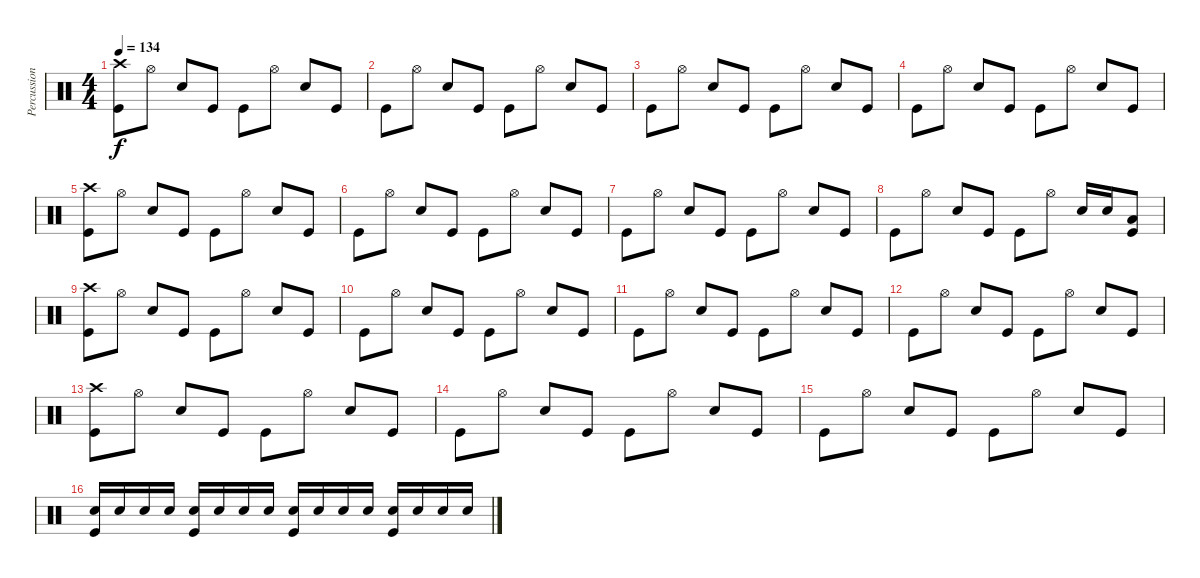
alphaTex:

\track ("Percussion" "Percussion") {instrument percussion}
\staff {score}
\articulation defaults
\ts (4 4)
\tempo 134
\clef neutral
\ks c
("Crash high (hit)" "Kick (hit)").8{dy f} "Hi-Hat (open)".8 "Electric Snare (hit)".8 "Kick (hit)".8 "Kick (hit)".8 "Hi-Hat (open)".8 "Electric Snare (hit)".8 "Kick (hit)".8 |
"Kick (hit)".8 "Hi-Hat (open)".8 "Electric Snare (hit)".8 "Kick (hit)".8 "Kick (hit)".8 "Hi-Hat (open)".8 "Electric Snare (hit)".8 "Kick (hit)".8 |
"Kick (hit)".8 "Hi-Hat (open)".8 "Electric Snare (hit)".8 "Kick (hit)".8 "Kick (hit)".8 "Hi-Hat (open)".8 "Electric Snare (hit)".8 "Kick (hit)".8 |
"Kick (hit)".8 "Hi-Hat (open)".8 "Electric Snare (hit)".8 "Kick (hit)".8 "Kick (hit)".8 "Hi-Hat (open)".8 "Electric Snare (hit)".8 "Kick (hit)".8 |
("Crash high (hit)" "Kick (hit)").8 "Hi-Hat (open)".8 "Electric Snare (hit)".8 "Kick (hit)".8 "Kick (hit)".8 "Hi-Hat (open)".8 "Electric Snare (hit)".8 "Kick (hit)".8 |
"Kick (hit)".8 "Hi-Hat (open)".8 "Electric Snare (hit)".8 "Kick (hit)".8 "Kick (hit)".8 "Hi-Hat (open)".8 "Electric Snare (hit)".8 "Kick (hit)".8 |
"Kick (hit)".8 "Hi-Hat (open)".8 "Electric Snare (hit)".8 "Kick (hit)".8 "Kick (hit)".8 "Hi-Hat (open)".8 "Electric Snare (hit)".8 "Kick (hit)".8 |
"Kick (hit)".8 "Hi-Hat (open)".8 "Electric Snare (hit)".8 "Kick (hit)".8 "Kick (hit)".8 "Hi-Hat (open)".8 "Electric Snare (hit)".16 "Electric Snare (hit)".16 ("Low Tom (hit)" "Kick (hit)").8 |
("Crash high (hit)" "Kick (hit)").8 "Hi-Hat (open)".8 "Electric Snare (hit)".8 "Kick (hit)".8 "Kick (hit)".8 "Hi-Hat (open)".8 "Electric Snare (hit)".8 "Kick (hit)".8 |
"Kick (hit)".8 "Hi-Hat (open)".8 "Electric Snare (hit)".8 "Kick (hit)".8 "Kick (hit)".8 "Hi-Hat (open)".8 "Electric Snare (hit)".8 "Kick (hit)".8 |
"Kick (hit)".8 "Hi-Hat (open)".8 "Electric Snare (hit)".8 "Kick (hit)".8 "Kick (hit)".8 "Hi-Hat (open)".8 "Electric Snare (hit)".8 "Kick (hit)".8 |
"Kick (hit)".8 "Hi-Hat (open)".8 "Electric Snare (hit)".8 "Kick (hit)".8 "Kick (hit)".8 "Hi-Hat (open)".8 "Electric Snare (hit)".8 "Kick (hit)".8 |
("Crash high (hit)" "Kick (hit)").8 "Hi-Hat (open)".8 "Electric Snare (hit)".8 "Kick (hit)".8 "Kick (hit)".8 "Hi-Hat (open)".8 "Electric Snare (hit)".8 "Kick (hit)".8 |
"Kick (hit)".8 "Hi-Hat (open)".8 "Electric Snare (hit)".8 "Kick (hit)".8 "Kick (hit)".8 "Hi-Hat (open)".8 "Electric Snare (hit)".8 "Kick (hit)".8 |
"Kick (hit)".8 "Hi-Hat (open)".8 "Electric Snare (hit)".8 "Kick (hit)".8 "Kick (hit)".8 "Hi-Hat (open)".8 "Electric Snare (hit)".8 "Kick (hit)".8 |
("Electric Snare (hit)" "Kick (hit)").16 "Electric Snare (hit)".16 "Electric Snare (hit)".16 "Electric Snare (hit)".16 ("Electric Snare (hit)" "Kick (hit)").16 "Electric Snare (hit)".16 "Electric Snare (hit)".16 "Electric Snare (hit)".16 ("Electric Snare (hit)" "Kick (hit)").16 "Electric Snare (hit)".16 "Electric Snare (hit)".16 "Electric Snare (hit)".16 ("Electric Snare (hit)" "Kick (hit)").16 "Electric Snare (hit)".16 "Electric Snare (hit)".16 "Electric Snare (hit)".16
